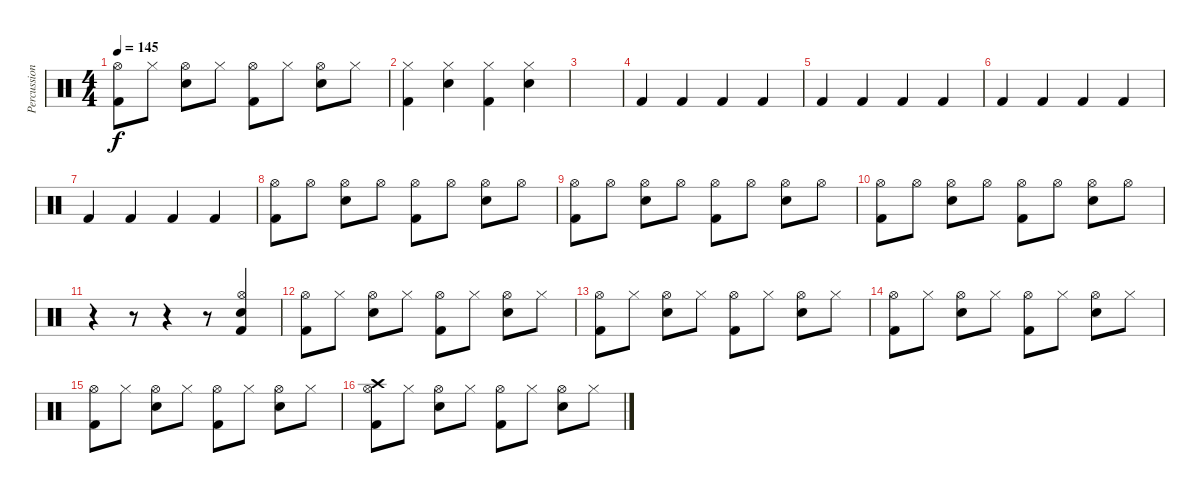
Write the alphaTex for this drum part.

\track ("Percussion" "Percussion") {instrument percussion bank 1}
\staff {score}
\articulation defaults
\ts (4 4)
\tempo 145
\clef neutral
\ks c
("Kick (hit) 2" "Hi-Hat (open)").8{dy f} "Hi-Hat (closed)".8 ("Electric Snare (hit)" "Hi-Hat (open)").8 "Hi-Hat (closed)".8 ("Kick (hit) 2" "Hi-Hat (open)").8 "Hi-Hat (closed)".8 ("Electric Snare (hit)" "Hi-Hat (open)").8 "Hi-Hat (closed)".8 |
("Kick (hit) 2" "Hi-Hat (closed)").4 ("Electric Snare (hit)" "Hi-Hat (closed)").4 ("Kick (hit) 2" "Hi-Hat (closed)").4 ("Electric Snare (hit)" "Hi-Hat (closed)").4 |
|
"Kick (hit) 2".4 "Kick (hit) 2".4 "Kick (hit) 2".4 "Kick (hit) 2".4 |
"Kick (hit) 2".4 "Kick (hit) 2".4 "Kick (hit) 2".4 "Kick (hit) 2".4 |
"Kick (hit) 2".4 "Kick (hit) 2".4 "Kick (hit) 2".4 "Kick (hit) 2".4 |
"Kick (hit) 2".4 "Kick (hit) 2".4 "Kick (hit) 2".4 "Kick (hit) 2".4 |
("Kick (hit) 2" "Hi-Hat (open)").8 "Hi-Hat (open)".8 ("Electric Snare (hit)" "Hi-Hat (open)").8 "Hi-Hat (open)".8 ("Kick (hit) 2" "Hi-Hat (open)").8 "Hi-Hat (open)".8 ("Electric Snare (hit)" "Hi-Hat (open)").8 "Hi-Hat (open)".8 |
("Kick (hit) 2" "Hi-Hat (open)").8 "Hi-Hat (open)".8 ("Electric Snare (hit)" "Hi-Hat (open)").8 "Hi-Hat (open)".8 ("Kick (hit) 2" "Hi-Hat (open)").8 "Hi-Hat (open)".8 ("Electric Snare (hit)" "Hi-Hat (open)").8 "Hi-Hat (open)".8 |
("Kick (hit) 2" "Hi-Hat (open)").8 "Hi-Hat (open)".8 ("Electric Snare (hit)" "Hi-Hat (open)").8 "Hi-Hat (open)".8 ("Kick (hit) 2" "Hi-Hat (open)").8 "Hi-Hat (open)".8 ("Electric Snare (hit)" "Hi-Hat (open)").8 "Hi-Hat (open)".8 |
r.4 r.8 r.4 r.8 ("Hi-Hat (open)" "Electric Snare (hit)" "Kick (hit) 2").4 |
("Kick (hit) 2" "Hi-Hat (open)").8 "Hi-Hat (closed)".8 ("Electric Snare (hit)" "Hi-Hat (open)").8 "Hi-Hat (closed)".8 ("Kick (hit) 2" "Hi-Hat (open)").8 "Hi-Hat (closed)".8 ("Electric Snare (hit)" "Hi-Hat (open)").8 "Hi-Hat (closed)".8 |
("Kick (hit) 2" "Hi-Hat (open)").8 "Hi-Hat (closed)".8 ("Electric Snare (hit)" "Hi-Hat (open)").8 "Hi-Hat (closed)".8 ("Kick (hit) 2" "Hi-Hat (open)").8 "Hi-Hat (closed)".8 ("Electric Snare (hit)" "Hi-Hat (open)").8 "Hi-Hat (closed)".8 |
("Kick (hit) 2" "Hi-Hat (open)").8 "Hi-Hat (closed)".8 ("Electric Snare (hit)" "Hi-Hat (open)").8 "Hi-Hat (closed)".8 ("Kick (hit) 2" "Hi-Hat (open)").8 "Hi-Hat (closed)".8 ("Electric Snare (hit)" "Hi-Hat (open)").8 "Hi-Hat (closed)".8 |
("Kick (hit) 2" "Hi-Hat (open)").8 "Hi-Hat (closed)".8 ("Electric Snare (hit)" "Hi-Hat (open)").8 "Hi-Hat (closed)".8 ("Kick (hit) 2" "Hi-Hat (open)").8 "Hi-Hat (closed)".8 ("Electric Snare (hit)" "Hi-Hat (open)").8 "Hi-Hat (closed)".8 |
("Kick (hit) 2" "Crash high (hit)" "Hi-Hat (open)").8 "Hi-Hat (closed)".8 ("Electric Snare (hit)" "Hi-Hat (open)").8 "Hi-Hat (closed)".8 ("Kick (hit) 2" "Hi-Hat (open)").8 "Hi-Hat (closed)".8 ("Electric Snare (hit)" "Hi-Hat (open)").8 "Hi-Hat (closed)".8
